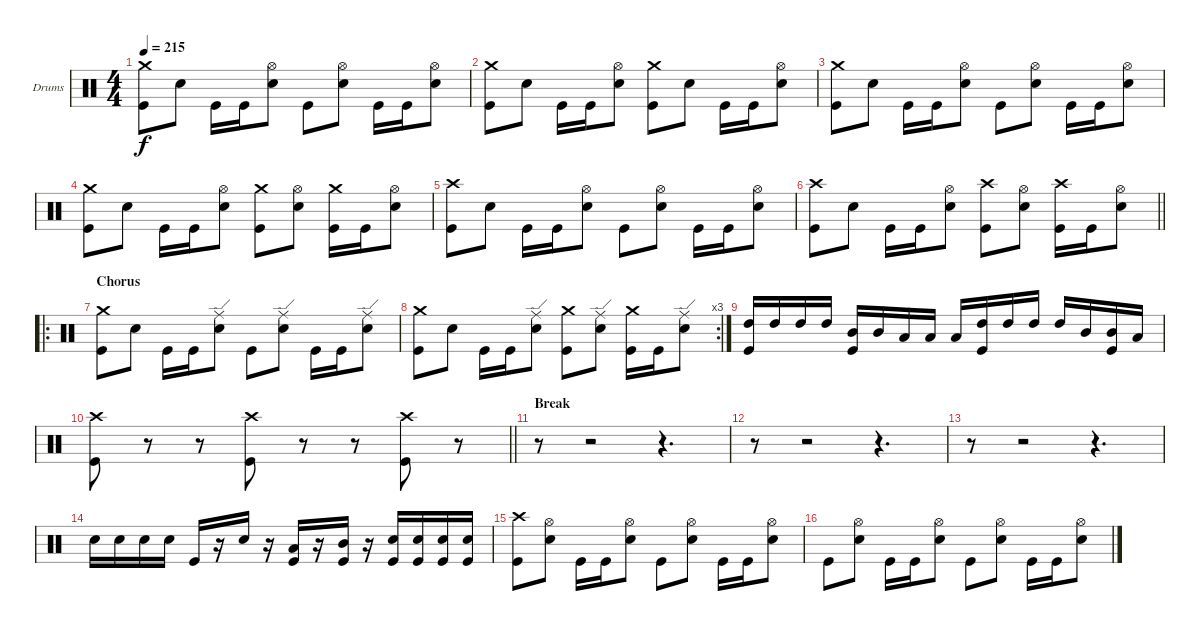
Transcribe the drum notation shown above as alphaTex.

\bracketExtendMode groupsimilarinstruments
\firstSystemTrackNameOrientation horizontal
\otherSystemsTrackNameOrientation horizontal
\track ("Dave McClain" "Drums") {instrument percussion}
\staff {score}
\articulation defaults
\ts (4 4)
\tempo 215
\clef neutral
\ks c
("Crash medium (hit)" "Kick (hit)").8{dy f} "Snare (hit) 2".8 "Kick (hit)".16 "Kick (hit)".16 ("Hi-Hat (open)" "Snare (hit) 2").8 "Kick (hit)".8 ("Hi-Hat (open)" "Snare (hit) 2").8 "Kick (hit)".16 "Kick (hit)".16 ("Hi-Hat (open)" "Snare (hit) 2").8 |
("Crash medium (hit)" "Kick (hit)").8 "Snare (hit) 2".8 "Kick (hit)".16 "Kick (hit)".16 ("Hi-Hat (open)" "Snare (hit) 2").8 ("Crash medium (hit)" "Kick (hit)").8 "Snare (hit) 2".8 "Kick (hit)".16 "Kick (hit)".16 ("Hi-Hat (open)" "Snare (hit) 2").8 |
("Crash medium (hit)" "Kick (hit)").8 "Snare (hit) 2".8 "Kick (hit)".16 "Kick (hit)".16 ("Hi-Hat (open)" "Snare (hit) 2").8 "Kick (hit)".8 ("Hi-Hat (open)" "Snare (hit) 2").8 "Kick (hit)".16 "Kick (hit)".16 ("Hi-Hat (open)" "Snare (hit) 2").8 |
("Crash medium (hit)" "Kick (hit)").8 "Snare (hit) 2".8 "Kick (hit)".16 "Kick (hit)".16 ("Hi-Hat (open)" "Snare (hit) 2").8 ("Crash medium (hit)" "Kick (hit)").8 ("Hi-Hat (open)" "Snare (hit) 2").8 ("Crash medium (hit)" "Kick (hit)").16 "Kick (hit)".16 ("Hi-Hat (open)" "Snare (hit) 2").8 |
("Crash high (hit)" "Kick (hit)").8 "Snare (hit) 2".8 "Kick (hit)".16 "Kick (hit)".16 ("Hi-Hat (open)" "Snare (hit) 2").8 "Kick (hit)".8 ("Hi-Hat (open)" "Snare (hit) 2").8 "Kick (hit)".16 "Kick (hit)".16 ("Hi-Hat (open)" "Snare (hit) 2").8 |
\barLineRight lightlight
("Crash high (hit)" "Kick (hit)").8 "Snare (hit) 2".8 "Kick (hit)".16 "Kick (hit)".16 ("Hi-Hat (open)" "Snare (hit) 2").8 ("Crash high (hit)" "Kick (hit)").8 ("Hi-Hat (open)" "Snare (hit) 2").8 ("Crash high (hit)" "Kick (hit)").16 "Kick (hit)".16 ("Hi-Hat (open)" "Snare (hit) 2").8 |
\ro
\section ("" "Chorus")
("Crash medium (hit)" "Kick (hit)").8 "Snare (hit) 2".8 "Kick (hit)".16 "Kick (hit)".16 ("Ride (edge)" "Snare (hit) 2").8 "Kick (hit)".8 ("Ride (edge)" "Snare (hit) 2").8 "Kick (hit)".16 "Kick (hit)".16 ("Ride (edge)" "Snare (hit) 2").8 |
\rc 3
("Crash medium (hit)" "Kick (hit)").8 "Snare (hit) 2".8 "Kick (hit)".16 "Kick (hit)".16 ("Ride (edge)" "Snare (hit) 2").8 ("Crash medium (hit)" "Kick (hit)").8 ("Ride (edge)" "Snare (hit) 2").8 ("Crash medium (hit)" "Kick (hit)").16 "Kick (hit)".16 ("Ride (edge)" "Snare (hit) 2").8 |
("High Tom (hit)" "Kick (hit)").16 "High Tom (hit)".16 "High Tom (hit)".16 "High Tom (hit)".16 ("Mid Tom (hit)" "Kick (hit)").16 "Mid Tom (hit)".16 "Low Tom (hit)".16 "Low Tom (hit)".16 "Low Tom (hit)".16 ("High Tom (hit)" "Kick (hit)").16 "High Tom (hit)".16 "High Tom (hit)".16 "High Tom (hit)".16 "Mid Tom (hit)".16 ("Mid Tom (hit)" "Kick (hit)").16 "Low Tom (hit)".16 |
\barLineRight lightlight
("Crash high (hit)" "Kick (hit)").8 r.8 r.8 ("Crash high (hit)" "Kick (hit)").8 r.8 r.8 ("Crash high (hit)" "Kick (hit)").8 r.8 |
\section ("" "Break")
r.8 r.2 r.4{d} |
r.8 r.2 r.4{d} |
r.8 r.2 r.4{d} |
"Snare (hit) 2".16 "Snare (hit) 2".16 "Snare (hit) 2".16 "Snare (hit) 2".16 "Kick (hit)".16 r.16 "Snare (hit) 2".16 r.16 ("Low Tom (hit)" "Kick (hit)").16 r.16 ("Mid Tom (hit)" "Kick (hit)").16 r.16 ("Snare (hit) 2" "Kick (hit)").16 ("Snare (hit) 2" "Kick (hit)").16 ("Snare (hit) 2" "Kick (hit)").16 ("Snare (hit) 2" "Kick (hit)").16 |
("Crash high (hit)" "Kick (hit)").8 ("Hi-Hat (open)" "Snare (hit) 2").8 "Kick (hit)".16 "Kick (hit)".16 ("Hi-Hat (open)" "Snare (hit) 2").8 "Kick (hit)".8 ("Hi-Hat (open)" "Snare (hit) 2").8 "Kick (hit)".16 "Kick (hit)".16 ("Hi-Hat (open)" "Snare (hit) 2").8 |
"Kick (hit)".8 ("Hi-Hat (open)" "Snare (hit) 2").8 "Kick (hit)".16 "Kick (hit)".16 ("Hi-Hat (open)" "Snare (hit) 2").8 "Kick (hit)".8 ("Hi-Hat (open)" "Snare (hit) 2").8 "Kick (hit)".16 "Kick (hit)".16 ("Hi-Hat (open)" "Snare (hit) 2").8
